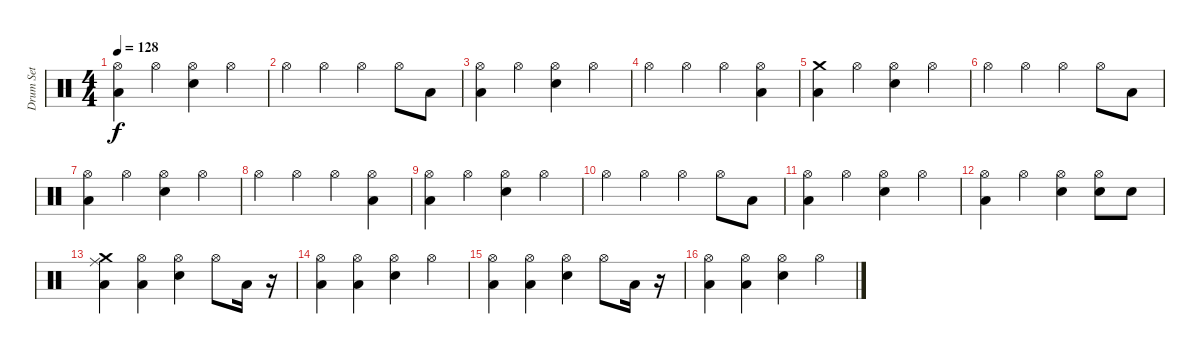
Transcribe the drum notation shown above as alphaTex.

\track ("Drum Set" "Drum Set") {instrument percussion}
\staff {score}
\articulation defaults
\ts (4 4)
\tempo 128
\clef neutral
\ks c
("Hi-Hat (open)" "Low Floor Tom (hit)").4{dy f} "Hi-Hat (open)".4 ("Hi-Hat (open)" "Snare (hit) 2").4 "Hi-Hat (open)".4 |
"Hi-Hat (open)".4 "Hi-Hat (open)".4 "Hi-Hat (open)".4 "Hi-Hat (open)".8 "Low Floor Tom (hit)".8 |
("Hi-Hat (open)" "Low Floor Tom (hit)").4 "Hi-Hat (open)".4 ("Hi-Hat (open)" "Snare (hit) 2").4 "Hi-Hat (open)".4 |
"Hi-Hat (open)".4 "Hi-Hat (open)".4 "Hi-Hat (open)".4 ("Hi-Hat (open)" "Low Floor Tom (hit)").4 |
("Crash medium (hit)" "Low Floor Tom (hit)").4 "Hi-Hat (open)".4 ("Hi-Hat (open)" "Snare (hit) 2").4 "Hi-Hat (open)".4 |
"Hi-Hat (open)".4 "Hi-Hat (open)".4 "Hi-Hat (open)".4 "Hi-Hat (open)".8 "Low Floor Tom (hit)".8 |
("Hi-Hat (open)" "Low Floor Tom (hit)").4 "Hi-Hat (open)".4 ("Hi-Hat (open)" "Snare (hit) 2").4 "Hi-Hat (open)".4 |
"Hi-Hat (open)".4 "Hi-Hat (open)".4 "Hi-Hat (open)".4 ("Hi-Hat (open)" "Low Floor Tom (hit)").4 |
("Hi-Hat (open)" "Low Floor Tom (hit)").4 "Hi-Hat (open)".4 ("Hi-Hat (open)" "Snare (hit) 2").4 "Hi-Hat (open)".4 |
"Hi-Hat (open)".4 "Hi-Hat (open)".4 "Hi-Hat (open)".4 "Hi-Hat (open)".8 "Low Floor Tom (hit)".8 |
("Hi-Hat (open)" "Low Floor Tom (hit)").4 "Hi-Hat (open)".4 ("Hi-Hat (open)" "Snare (hit) 2").4 "Hi-Hat (open)".4 |
("Hi-Hat (open)" "Low Floor Tom (hit)").4 "Hi-Hat (open)".4 ("Hi-Hat (open)" "Snare (hit) 2").4 ("Hi-Hat (open)" "Snare (hit) 2").8 "Snare (hit) 2".8 |
("Crash medium (hit)" "Ride (middle)" "Low Floor Tom (hit)").4 ("Hi-Hat (open)" "Low Floor Tom (hit)").4 ("Hi-Hat (open)" "Snare (hit) 2").4 "Hi-Hat (open)".8 "Low Floor Tom (hit)".16 r.16 |
("Hi-Hat (open)" "Low Floor Tom (hit)").4 ("Hi-Hat (open)" "Low Floor Tom (hit)").4 ("Hi-Hat (open)" "Snare (hit) 2").4 "Hi-Hat (open)".4 |
("Hi-Hat (open)" "Low Floor Tom (hit)").4 ("Hi-Hat (open)" "Low Floor Tom (hit)").4 ("Hi-Hat (open)" "Snare (hit) 2").4 "Hi-Hat (open)".8 "Low Floor Tom (hit)".16 r.16 |
("Hi-Hat (open)" "Low Floor Tom (hit)").4 ("Hi-Hat (open)" "Low Floor Tom (hit)").4 ("Hi-Hat (open)" "Snare (hit) 2").4 "Hi-Hat (open)".4
